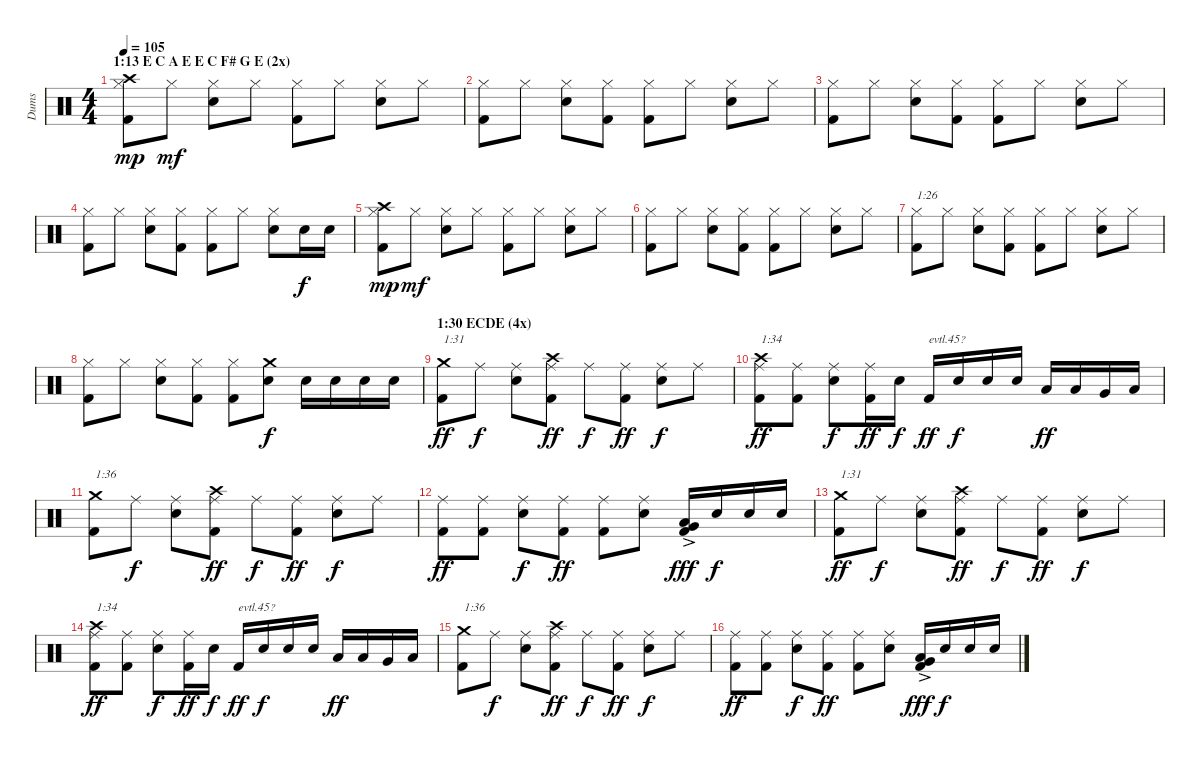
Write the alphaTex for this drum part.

\track ("Dums" "Dums") {instrument percussion}
\staff {score}
\articulation defaults
\ts (4 4)
\section ("" "1:13 E C A E E C F# G E (2x)")
\tempo 105
\clef neutral
\ks c
("Kick (hit) 2" "Hi-Hat (closed)" "Crash high (hit)").8{dy mp} "Hi-Hat (closed)".8{dy mf} ("Electric Snare (hit)" "Hi-Hat (closed)").8 "Hi-Hat (closed)".8 ("Kick (hit) 2" "Hi-Hat (closed)").8 "Hi-Hat (closed)".8 ("Electric Snare (hit)" "Hi-Hat (closed)").8 "Hi-Hat (closed)".8 |
("Kick (hit) 2" "Hi-Hat (closed)").8 "Hi-Hat (closed)".8 ("Electric Snare (hit)" "Hi-Hat (closed)").8 ("Kick (hit) 2" "Hi-Hat (closed)").8 ("Kick (hit) 2" "Hi-Hat (closed)").8 "Hi-Hat (closed)".8 ("Electric Snare (hit)" "Hi-Hat (closed)").8 "Hi-Hat (closed)".8 |
("Kick (hit) 2" "Hi-Hat (closed)").8 "Hi-Hat (closed)".8 ("Electric Snare (hit)" "Hi-Hat (closed)").8 ("Kick (hit) 2" "Hi-Hat (closed)").8 ("Kick (hit) 2" "Hi-Hat (closed)").8 "Hi-Hat (closed)".8 ("Electric Snare (hit)" "Hi-Hat (closed)").8 "Hi-Hat (closed)".8 |
("Kick (hit) 2" "Hi-Hat (closed)").8 "Hi-Hat (closed)".8 ("Electric Snare (hit)" "Hi-Hat (closed)").8 ("Kick (hit) 2" "Hi-Hat (closed)").8 ("Kick (hit) 2" "Hi-Hat (closed)").8 "Hi-Hat (closed)".8 ("Electric Snare (hit)" "Hi-Hat (closed)").8 "Electric Snare (hit)".16{dy f} "Electric Snare (hit)".16 |
("Kick (hit) 2" "Hi-Hat (closed)" "Crash high (hit)").8{dy mp} "Hi-Hat (closed)".8{dy mf} ("Electric Snare (hit)" "Hi-Hat (closed)").8 "Hi-Hat (closed)".8 ("Kick (hit) 2" "Hi-Hat (closed)").8 "Hi-Hat (closed)".8 ("Electric Snare (hit)" "Hi-Hat (closed)").8 "Hi-Hat (closed)".8 |
("Kick (hit) 2" "Hi-Hat (closed)").8 "Hi-Hat (closed)".8 ("Electric Snare (hit)" "Hi-Hat (closed)").8 ("Kick (hit) 2" "Hi-Hat (closed)").8 ("Kick (hit) 2" "Hi-Hat (closed)").8 "Hi-Hat (closed)".8 ("Electric Snare (hit)" "Hi-Hat (closed)").8 "Hi-Hat (closed)".8 |
("Kick (hit) 2" "Hi-Hat (closed)").8{txt "1:26"} "Hi-Hat (closed)".8 ("Electric Snare (hit)" "Hi-Hat (closed)").8 ("Kick (hit) 2" "Hi-Hat (closed)").8 ("Kick (hit) 2" "Hi-Hat (closed)").8 "Hi-Hat (closed)".8 ("Electric Snare (hit)" "Hi-Hat (closed)").8 "Hi-Hat (closed)".8 |
("Kick (hit) 2" "Hi-Hat (closed)").8 "Hi-Hat (closed)".8 ("Electric Snare (hit)" "Hi-Hat (closed)").8 ("Kick (hit) 2" "Hi-Hat (closed)").8 ("Kick (hit) 2" "Hi-Hat (closed)").8 ("Electric Snare (hit)" "Crash medium (hit)").8{dy f} "Electric Snare (hit)".16 "Electric Snare (hit)".16 "Electric Snare (hit)".16 "Electric Snare (hit)".16 |
\section ("" "1:30 ECDE (4x)")
("Kick (hit) 2" "Crash medium (hit)").8{txt "1:31" dy ff} "Ride (middle)".8{dy f} ("Electric Snare (hit)" "Ride (middle)").8 ("Kick (hit) 2" "Ride (middle)" "Crash high (hit)").8{dy ff} "Ride (middle)".8{dy f} ("Kick (hit) 2" "Ride (middle)").8{dy ff} ("Electric Snare (hit)" "Ride (middle)").8{dy f} "Ride (middle)".8 |
("Kick (hit) 2" "Ride (middle)" "Crash high (hit)").8{txt "1:34" dy ff} ("Kick (hit) 2" "Ride (middle)").8 ("Electric Snare (hit)" "Ride (middle)").8{dy f} ("Kick (hit) 2" "Ride (middle)").16{dy ff} "Electric Snare (hit)".16{dy f} "Kick (hit) 2".16{txt "evtl.45?" dy ff} "Electric Snare (hit)".16{dy f} "Electric Snare (hit)".16 "Electric Snare (hit)".16 "Low Tom (hit)".16{dy ff} "Low Tom (hit)".16 "Very Low Tom (hit)".16 "Low Floor Tom (hit)".16 |
("Kick (hit) 2" "Crash medium (hit)").8{txt "1:36"} "Ride (middle)".8{dy f} ("Electric Snare (hit)" "Ride (middle)").8 ("Kick (hit) 2" "Ride (middle)" "Crash high (hit)").8{dy ff} "Ride (middle)".8{dy f} ("Kick (hit) 2" "Ride (middle)").8{dy ff} ("Electric Snare (hit)" "Ride (middle)").8{dy f} "Ride (middle)".8 |
("Kick (hit) 2" "Ride (middle)").8{dy ff} ("Kick (hit) 2" "Ride (middle)").8 ("Electric Snare (hit)" "Ride (middle)").8{dy f} ("Kick (hit) 2" "Ride (middle)").8{dy ff} ("Kick (hit) 2" "Ride (middle)").8 ("Electric Snare (hit)" "Ride (middle)").8 ("Kick (hit) 2" "Low Floor Tom (hit)"{ac} "Very Low Tom (hit)"{ac}).16{dy fff} "Electric Snare (hit)".16{dy f} "Electric Snare (hit)".16 "Electric Snare (hit)".16 |
("Kick (hit) 2" "Crash medium (hit)").8{txt "1:31" dy ff} "Ride (middle)".8{dy f} ("Electric Snare (hit)" "Ride (middle)").8 ("Kick (hit) 2" "Ride (middle)" "Crash high (hit)").8{dy ff} "Ride (middle)".8{dy f} ("Kick (hit) 2" "Ride (middle)").8{dy ff} ("Electric Snare (hit)" "Ride (middle)").8{dy f} "Ride (middle)".8 |
("Kick (hit) 2" "Ride (middle)" "Crash high (hit)").8{txt "1:34" dy ff} ("Kick (hit) 2" "Ride (middle)").8 ("Electric Snare (hit)" "Ride (middle)").8{dy f} ("Kick (hit) 2" "Ride (middle)").16{dy ff} "Electric Snare (hit)".16{dy f} "Kick (hit) 2".16{txt "evtl.45?" dy ff} "Electric Snare (hit)".16{dy f} "Electric Snare (hit)".16 "Electric Snare (hit)".16 "Low Tom (hit)".16{dy ff} "Low Tom (hit)".16 "Very Low Tom (hit)".16 "Low Floor Tom (hit)".16 |
("Kick (hit) 2" "Crash medium (hit)").8{txt "1:36"} "Ride (middle)".8{dy f} ("Electric Snare (hit)" "Ride (middle)").8 ("Kick (hit) 2" "Ride (middle)" "Crash high (hit)").8{dy ff} "Ride (middle)".8{dy f} ("Kick (hit) 2" "Ride (middle)").8{dy ff} ("Electric Snare (hit)" "Ride (middle)").8{dy f} "Ride (middle)".8 |
("Kick (hit) 2" "Ride (middle)").8{dy ff} ("Kick (hit) 2" "Ride (middle)").8 ("Electric Snare (hit)" "Ride (middle)").8{dy f} ("Kick (hit) 2" "Ride (middle)").8{dy ff} ("Kick (hit) 2" "Ride (middle)").8 ("Electric Snare (hit)" "Ride (middle)").8 ("Kick (hit) 2" "Low Floor Tom (hit)"{ac} "Very Low Tom (hit)"{ac}).16{dy fff} "Electric Snare (hit)".16{dy f} "Electric Snare (hit)".16 "Electric Snare (hit)".16
